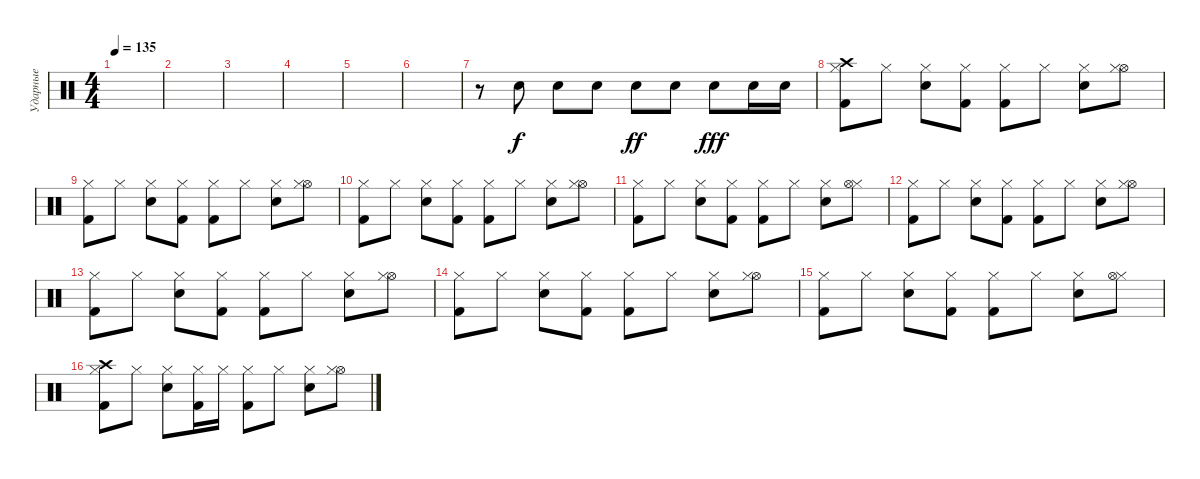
\track ("Ударные" "Ударные") {instrument percussion}
\staff {score}
\articulation defaults
\ts (4 4)
\tempo 135
\clef neutral
\ks c
|
|
|
|
|
|
r.8 "Snare (hit) 2".8 "Snare (hit) 2".8{dy f} "Snare (hit) 2".8 "Snare (hit) 2".8{dy ff} "Snare (hit) 2".8 "Snare (hit) 2".8{dy fff} "Snare (hit) 2".16 "Snare (hit) 2".16 |
("Crash high (hit)" "Hi-Hat (closed)" "Kick (hit) 2").8 "Hi-Hat (closed)".8 ("Hi-Hat (closed)" "Snare (hit) 2").8 ("Hi-Hat (closed)" "Kick (hit) 2").8 ("Hi-Hat (closed)" "Kick (hit) 2").8 "Hi-Hat (closed)".8 ("Snare (hit) 2" "Hi-Hat (closed)").8 ("Hi-Hat (open)" "Hi-Hat (closed)").8 |
("Hi-Hat (closed)" "Kick (hit) 2").8 "Hi-Hat (closed)".8 ("Hi-Hat (closed)" "Snare (hit) 2").8 ("Kick (hit) 2" "Hi-Hat (closed)").8 ("Hi-Hat (closed)" "Kick (hit) 2").8 "Hi-Hat (closed)".8 ("Hi-Hat (closed)" "Snare (hit) 2").8 ("Hi-Hat (open)" "Hi-Hat (closed)").8 |
("Hi-Hat (closed)" "Kick (hit) 2").8 "Hi-Hat (closed)".8 ("Snare (hit) 2" "Hi-Hat (closed)").8 ("Hi-Hat (closed)" "Kick (hit) 2").8 ("Hi-Hat (closed)" "Kick (hit) 2").8 "Hi-Hat (closed)".8 ("Hi-Hat (closed)" "Snare (hit) 2").8 ("Hi-Hat (open)" "Hi-Hat (closed)").8 |
("Hi-Hat (closed)" "Kick (hit) 2").8 "Hi-Hat (closed)".8 ("Hi-Hat (closed)" "Snare (hit) 2").8 ("Kick (hit) 2" "Hi-Hat (closed)").8 ("Hi-Hat (closed)" "Kick (hit) 2").8 "Hi-Hat (closed)".8 ("Snare (hit) 2" "Hi-Hat (closed)").8 ("Hi-Hat (closed)" "Hi-Hat (open)").8 |
("Hi-Hat (closed)" "Kick (hit) 2").8 "Hi-Hat (closed)".8 ("Hi-Hat (closed)" "Snare (hit) 2").8 ("Hi-Hat (closed)" "Kick (hit) 2").8 ("Hi-Hat (closed)" "Kick (hit) 2").8 "Hi-Hat (closed)".8 ("Snare (hit) 2" "Hi-Hat (closed)").8 ("Hi-Hat (open)" "Hi-Hat (closed)").8 |
("Hi-Hat (closed)" "Kick (hit) 2").8 "Hi-Hat (closed)".8 ("Hi-Hat (closed)" "Snare (hit) 2").8 ("Kick (hit) 2" "Hi-Hat (closed)").8 ("Hi-Hat (closed)" "Kick (hit) 2").8 "Hi-Hat (closed)".8 ("Hi-Hat (closed)" "Snare (hit) 2").8 ("Hi-Hat (open)" "Hi-Hat (closed)").8 |
("Hi-Hat (closed)" "Kick (hit) 2").8 "Hi-Hat (closed)".8 ("Snare (hit) 2" "Hi-Hat (closed)").8 ("Hi-Hat (closed)" "Kick (hit) 2").8 ("Hi-Hat (closed)" "Kick (hit) 2").8 "Hi-Hat (closed)".8 ("Hi-Hat (closed)" "Snare (hit) 2").8 ("Hi-Hat (open)" "Hi-Hat (closed)").8 |
("Hi-Hat (closed)" "Kick (hit) 2").8 "Hi-Hat (closed)".8 ("Hi-Hat (closed)" "Snare (hit) 2").8 ("Kick (hit) 2" "Hi-Hat (closed)").8 ("Hi-Hat (closed)" "Kick (hit) 2").8 "Hi-Hat (closed)".8 ("Snare (hit) 2" "Hi-Hat (closed)").8 ("Hi-Hat (closed)" "Hi-Hat (open)").8 |
("Crash high (hit)" "Hi-Hat (closed)" "Kick (hit) 2").8 "Hi-Hat (closed)".8 ("Hi-Hat (closed)" "Snare (hit) 2").8 ("Hi-Hat (closed)" "Kick (hit) 2").16 "Hi-Hat (closed)".16 ("Hi-Hat (closed)" "Kick (hit) 2").8 "Hi-Hat (closed)".8 ("Snare (hit) 2" "Hi-Hat (closed)").8 ("Hi-Hat (open)" "Hi-Hat (closed)").8
